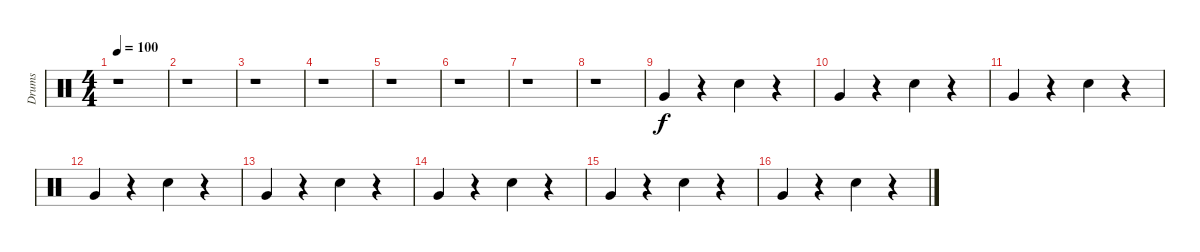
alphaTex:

\track ("Drums" "Drums") {instrument percussion}
\staff {score}
\articulation defaults
\ts (4 4)
\tempo 100
\clef neutral
\ks c
r.1{dy f} |
r.1 |
r.1 |
r.1 |
r.1 |
r.1 |
r.1 |
r.1 |
"Very Low Tom (hit)".4 r.4 "Snare (hit) 2".4 r.4 |
"Very Low Tom (hit)".4 r.4 "Snare (hit) 2".4 r.4 |
"Very Low Tom (hit)".4 r.4 "Snare (hit) 2".4 r.4 |
"Very Low Tom (hit)".4 r.4 "Snare (hit) 2".4 r.4 |
"Very Low Tom (hit)".4 r.4 "Snare (hit) 2".4 r.4 |
"Very Low Tom (hit)".4 r.4 "Snare (hit) 2".4 r.4 |
"Very Low Tom (hit)".4 r.4 "Snare (hit) 2".4 r.4 |
"Very Low Tom (hit)".4 r.4 "Snare (hit) 2".4 r.4
